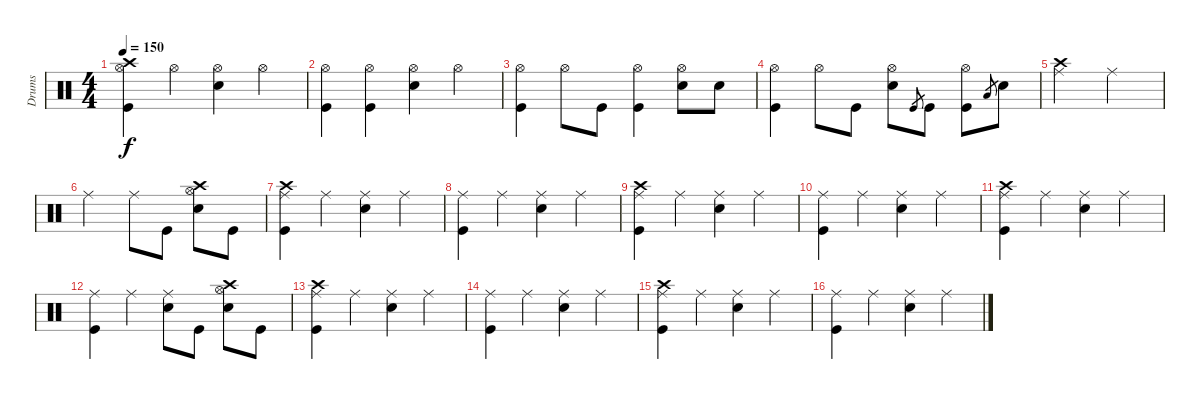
\track ("Drums" "Drums") {instrument percussion}
\staff {score}
\articulation defaults
\ts (4 4)
\tempo 150
\clef neutral
\ks c
("Crash high (hit)" "Hi-Hat (open)" "Kick (hit)").4{dy f} "Hi-Hat (open)".4 ("Hi-Hat (open)" "Electric Snare (hit)").4 "Hi-Hat (open)".4 |
("Hi-Hat (open)" "Kick (hit)").4 ("Hi-Hat (open)" "Kick (hit)").4 ("Hi-Hat (open)" "Electric Snare (hit)").4 "Hi-Hat (open)".4 |
("Hi-Hat (open)" "Kick (hit)").4 "Hi-Hat (open)".8 "Kick (hit)".8 ("Hi-Hat (open)" "Kick (hit)").4 ("Hi-Hat (open)" "Electric Snare (hit)").8 "Electric Snare (hit)".8 |
("Hi-Hat (open)" "Kick (hit)").4 "Hi-Hat (open)".8 "Kick (hit)".8 ("Hi-Hat (open)" "Electric Snare (hit)").8 "Kick (hit)".8{gr} "Kick (hit)".8 ("Hi-Hat (open)" "Kick (hit)").8 "Low Tom (hit)".8{gr} "Electric Snare (hit)".8 |
("Crash high (hit)" "Ride (middle)").2 "Ride (middle)".2 |
"Ride (middle)".2 "Ride (middle)".8 "Kick (hit)".8 ("Hi-Hat (open)" "Crash high (hit)" "Electric Snare (hit)").8 "Kick (hit)".8 |
("Crash high (hit)" "Ride (middle)" "Kick (hit)").4 "Ride (middle)".4 ("Ride (middle)" "Electric Snare (hit)").4 "Ride (middle)".4 |
("Ride (middle)" "Kick (hit)").4 "Ride (middle)".4 ("Ride (middle)" "Electric Snare (hit)").4 "Ride (middle)".4 |
("Crash high (hit)" "Ride (middle)" "Kick (hit)").4 "Ride (middle)".4 ("Ride (middle)" "Electric Snare (hit)").4 "Ride (middle)".4 |
("Ride (middle)" "Kick (hit)").4 "Ride (middle)".4 ("Ride (middle)" "Electric Snare (hit)").4 "Ride (middle)".4 |
("Crash high (hit)" "Ride (middle)" "Kick (hit)").4 "Ride (middle)".4 ("Ride (middle)" "Electric Snare (hit)").4 "Ride (middle)".4 |
("Ride (middle)" "Kick (hit)").4 "Ride (middle)".4 ("Ride (middle)" "Electric Snare (hit)").8 "Kick (hit)".8 ("Crash high (hit)" "Hi-Hat (open)" "Electric Snare (hit)").8 "Kick (hit)".8 |
("Crash high (hit)" "Ride (middle)" "Kick (hit)").4 "Ride (middle)".4 ("Ride (middle)" "Electric Snare (hit)").4 "Ride (middle)".4 |
("Ride (middle)" "Kick (hit)").4 "Ride (middle)".4 ("Ride (middle)" "Electric Snare (hit)").4 "Ride (middle)".4 |
("Crash high (hit)" "Ride (middle)" "Kick (hit)").4 "Ride (middle)".4 ("Ride (middle)" "Electric Snare (hit)").4 "Ride (middle)".4 |
("Ride (middle)" "Kick (hit)").4 "Ride (middle)".4 ("Ride (middle)" "Electric Snare (hit)").4 "Ride (middle)".4
